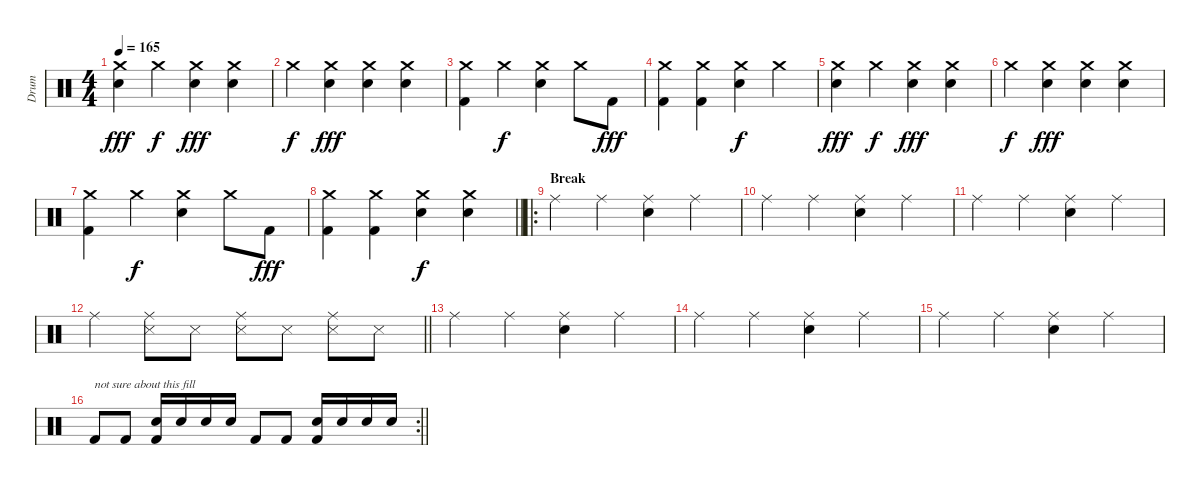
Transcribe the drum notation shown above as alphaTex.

\track ("Drum" "Drum") {instrument percussion}
\staff {score}
\articulation defaults
\ts (4 4)
\tempo 165
\clef neutral
\ks c
("Snare (hit) 2" "Crash medium (hit)").4{dy fff} "Crash medium (hit)".4{dy f} ("Snare (hit) 2" "Crash medium (hit)").4{dy fff} ("Snare (hit) 2" "Crash medium (hit)").4 |
"Crash medium (hit)".4{dy f} ("Snare (hit) 2" "Crash medium (hit)").4{dy fff} ("Snare (hit) 2" "Crash medium (hit)").4 ("Snare (hit) 2" "Crash medium (hit)").4 |
("Kick (hit) 2" "Crash medium (hit)").4 "Crash medium (hit)".4{dy f} ("Snare (hit) 2" "Crash medium (hit)").4 "Crash medium (hit)".8 "Kick (hit) 2".8{dy fff} |
("Kick (hit) 2" "Crash medium (hit)").4 ("Kick (hit) 2" "Crash medium (hit)").4 ("Snare (hit) 2" "Crash medium (hit)").4{dy f} "Crash medium (hit)".4 |
("Snare (hit) 2" "Crash medium (hit)").4{dy fff} "Crash medium (hit)".4{dy f} ("Snare (hit) 2" "Crash medium (hit)").4{dy fff} ("Snare (hit) 2" "Crash medium (hit)").4 |
"Crash medium (hit)".4{dy f} ("Snare (hit) 2" "Crash medium (hit)").4{dy fff} ("Snare (hit) 2" "Crash medium (hit)").4 ("Snare (hit) 2" "Crash medium (hit)").4 |
("Kick (hit) 2" "Crash medium (hit)").4 "Crash medium (hit)".4{dy f} ("Snare (hit) 2" "Crash medium (hit)").4 "Crash medium (hit)".8 "Kick (hit) 2".8{dy fff} |
\barLineRight lightlight
("Kick (hit) 2" "Crash medium (hit)").4 ("Kick (hit) 2" "Crash medium (hit)").4 ("Snare (hit) 2" "Crash medium (hit)").4{dy f} ("Snare (hit) 2" "Crash medium (hit)").4 |
\ro
\section ("" "Break")
"Ride (middle)".4 "Ride (middle)".4 ("Snare (hit) 2" "Ride (middle)").4 "Ride (middle)".4 |
"Ride (middle)".4 "Ride (middle)".4 ("Snare (hit) 2" "Ride (middle)").4 "Ride (middle)".4 |
"Ride (middle)".4 "Ride (middle)".4 ("Snare (hit) 2" "Ride (middle)").4 "Ride (middle)".4 |
\barLineRight lightlight "Ride (middle)".4
("Snare (side stick) 3" "Ride (middle)").8 "Snare (side stick) 3".8 ("Snare (side stick) 3" "Ride (middle)").8 "Snare (side stick) 3".8 ("Snare (side stick) 3" "Ride (middle)").8 "Snare (side stick) 3".8 |
"Ride (middle)".4 "Ride (middle)".4 ("Snare (hit) 2" "Ride (middle)").4 "Ride (middle)".4 |
"Ride (middle)".4 "Ride (middle)".4 ("Snare (hit) 2" "Ride (middle)").4 "Ride (middle)".4 |
"Ride (middle)".4 "Ride (middle)".4 ("Snare (hit) 2" "Ride (middle)").4 "Ride (middle)".4 |
\rc 2
\barLineRight lightlight "Kick (hit) 2".8{txt "not sure about this fill"} "Kick (hit) 2".8
("Kick (hit) 2" "Snare (hit) 2").16 "Snare (hit) 2".16 "Snare (hit) 2".16 "Snare (hit) 2".16 "Kick (hit) 2".8 "Kick (hit) 2".8 ("Kick (hit) 2" "Snare (hit) 2").16 "Snare (hit) 2".16 "Snare (hit) 2".16 "Snare (hit) 2".16
